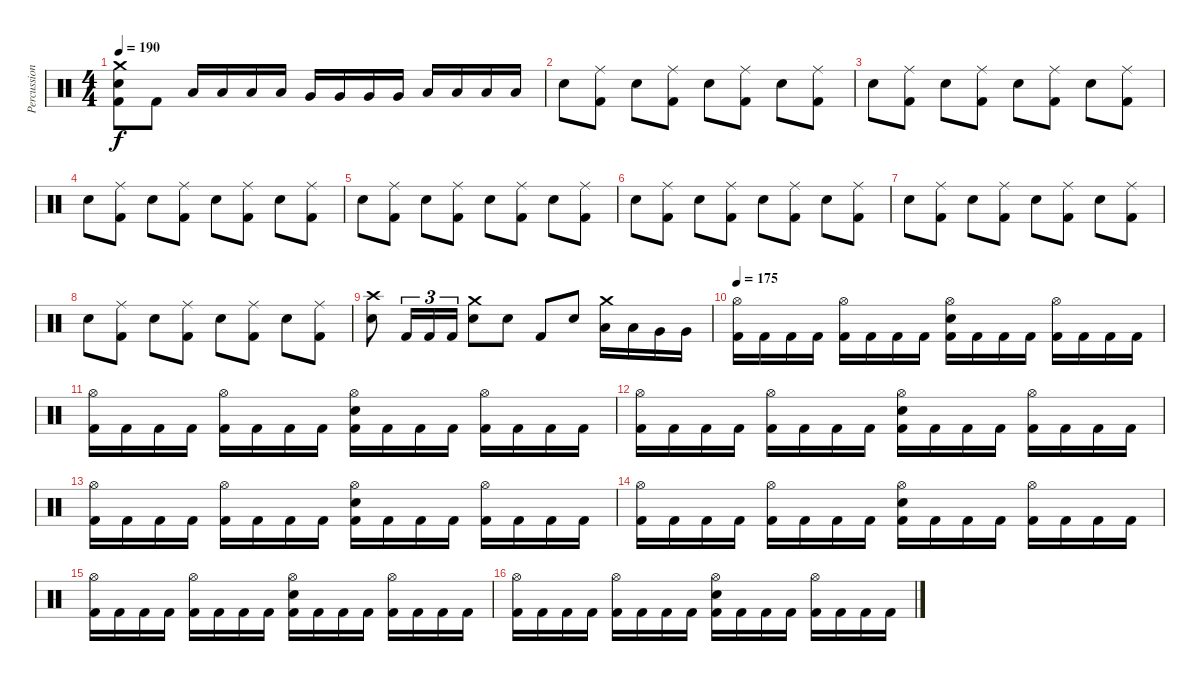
\track ("Percussion" "Percussion") {instrument percussion}
\staff {score}
\articulation defaults
\ts (4 4)
\tempo 190
\clef neutral
\ks c
("Crash medium (hit)" "Electric Snare (hit)" "Kick (hit) 2").8{dy f} "Kick (hit) 2".8 "Low Tom (hit)".16 "Low Tom (hit)".16 "Low Tom (hit)".16 "Low Tom (hit)".16 "Very Low Tom (hit)".16 "Very Low Tom (hit)".16 "Very Low Tom (hit)".16 "Very Low Tom (hit)".16 "Low Floor Tom (hit)".16 "Low Floor Tom (hit)".16 "Low Floor Tom (hit)".16 "Low Floor Tom (hit)".16 |
"Electric Snare (hit)".8 ("Ride (middle)" "Kick (hit) 2").8 "Electric Snare (hit)".8 ("Ride (middle)" "Kick (hit) 2").8 "Electric Snare (hit)".8 ("Ride (middle)" "Kick (hit) 2").8 "Electric Snare (hit)".8 ("Ride (middle)" "Kick (hit) 2").8 |
"Electric Snare (hit)".8 ("Ride (middle)" "Kick (hit) 2").8 "Electric Snare (hit)".8 ("Ride (middle)" "Kick (hit) 2").8 "Electric Snare (hit)".8 ("Ride (middle)" "Kick (hit) 2").8 "Electric Snare (hit)".8 ("Ride (middle)" "Kick (hit) 2").8 |
"Electric Snare (hit)".8 ("Ride (middle)" "Kick (hit) 2").8 "Electric Snare (hit)".8 ("Ride (middle)" "Kick (hit) 2").8 "Electric Snare (hit)".8 ("Ride (middle)" "Kick (hit) 2").8 "Electric Snare (hit)".8 ("Ride (middle)" "Kick (hit) 2").8 |
"Electric Snare (hit)".8 ("Ride (middle)" "Kick (hit) 2").8 "Electric Snare (hit)".8 ("Ride (middle)" "Kick (hit) 2").8 "Electric Snare (hit)".8 ("Ride (middle)" "Kick (hit) 2").8 "Electric Snare (hit)".8 ("Ride (middle)" "Kick (hit) 2").8 |
"Electric Snare (hit)".8 ("Ride (middle)" "Kick (hit) 2").8 "Electric Snare (hit)".8 ("Ride (middle)" "Kick (hit) 2").8 "Electric Snare (hit)".8 ("Ride (middle)" "Kick (hit) 2").8 "Electric Snare (hit)".8 ("Ride (middle)" "Kick (hit) 2").8 |
"Electric Snare (hit)".8 ("Ride (middle)" "Kick (hit) 2").8 "Electric Snare (hit)".8 ("Ride (middle)" "Kick (hit) 2").8 "Electric Snare (hit)".8 ("Ride (middle)" "Kick (hit) 2").8 "Electric Snare (hit)".8 ("Ride (middle)" "Kick (hit) 2").8 |
"Electric Snare (hit)".8 ("Ride (middle)" "Kick (hit) 2").8 "Electric Snare (hit)".8 ("Ride (middle)" "Kick (hit) 2").8 "Electric Snare (hit)".8 ("Ride (middle)" "Kick (hit) 2").8 "Electric Snare (hit)".8 ("Ride (middle)" "Kick (hit) 2").8 |
("Crash high (hit)" "Electric Snare (hit)").8 "Kick (hit) 2".16{tu (3 2)} "Kick (hit) 2".16{tu (3 2)} "Kick (hit) 2".16{tu (3 2)} ("Crash medium (hit)" "Electric Snare (hit)").8 "Electric Snare (hit)".8 "Kick (hit) 2".8 "Electric Snare (hit)".8 ("Crash medium (hit)" "Low Tom (hit)").16 "Low Tom (hit)".16 "Very Low Tom (hit)".16 "Very Low Tom (hit)".16 |
\tempo 175
("Hi-Hat (open)" "Kick (hit) 2").16 "Kick (hit) 2".16 "Kick (hit) 2".16 "Kick (hit) 2".16 ("Hi-Hat (open)" "Kick (hit) 2").16 "Kick (hit) 2".16 "Kick (hit) 2".16 "Kick (hit) 2".16 ("Hi-Hat (open)" "Electric Snare (hit)" "Kick (hit) 2").16 "Kick (hit) 2".16 "Kick (hit) 2".16 "Kick (hit) 2".16 ("Hi-Hat (open)" "Kick (hit) 2").16 "Kick (hit) 2".16 "Kick (hit) 2".16 "Kick (hit) 2".16 |
("Hi-Hat (open)" "Kick (hit) 2").16 "Kick (hit) 2".16 "Kick (hit) 2".16 "Kick (hit) 2".16 ("Hi-Hat (open)" "Kick (hit) 2").16 "Kick (hit) 2".16 "Kick (hit) 2".16 "Kick (hit) 2".16 ("Hi-Hat (open)" "Electric Snare (hit)" "Kick (hit) 2").16 "Kick (hit) 2".16 "Kick (hit) 2".16 "Kick (hit) 2".16 ("Hi-Hat (open)" "Kick (hit) 2").16 "Kick (hit) 2".16 "Kick (hit) 2".16 "Kick (hit) 2".16 |
("Hi-Hat (open)" "Kick (hit) 2").16 "Kick (hit) 2".16 "Kick (hit) 2".16 "Kick (hit) 2".16 ("Hi-Hat (open)" "Kick (hit) 2").16 "Kick (hit) 2".16 "Kick (hit) 2".16 "Kick (hit) 2".16 ("Hi-Hat (open)" "Electric Snare (hit)" "Kick (hit) 2").16 "Kick (hit) 2".16 "Kick (hit) 2".16 "Kick (hit) 2".16 ("Hi-Hat (open)" "Kick (hit) 2").16 "Kick (hit) 2".16 "Kick (hit) 2".16 "Kick (hit) 2".16 |
("Hi-Hat (open)" "Kick (hit) 2").16 "Kick (hit) 2".16 "Kick (hit) 2".16 "Kick (hit) 2".16 ("Hi-Hat (open)" "Kick (hit) 2").16 "Kick (hit) 2".16 "Kick (hit) 2".16 "Kick (hit) 2".16 ("Hi-Hat (open)" "Electric Snare (hit)" "Kick (hit) 2").16 "Kick (hit) 2".16 "Kick (hit) 2".16 "Kick (hit) 2".16 ("Hi-Hat (open)" "Kick (hit) 2").16 "Kick (hit) 2".16 "Kick (hit) 2".16 "Kick (hit) 2".16 |
("Hi-Hat (open)" "Kick (hit) 2").16 "Kick (hit) 2".16 "Kick (hit) 2".16 "Kick (hit) 2".16 ("Hi-Hat (open)" "Kick (hit) 2").16 "Kick (hit) 2".16 "Kick (hit) 2".16 "Kick (hit) 2".16 ("Hi-Hat (open)" "Electric Snare (hit)" "Kick (hit) 2").16 "Kick (hit) 2".16 "Kick (hit) 2".16 "Kick (hit) 2".16 ("Hi-Hat (open)" "Kick (hit) 2").16 "Kick (hit) 2".16 "Kick (hit) 2".16 "Kick (hit) 2".16 |
("Hi-Hat (open)" "Kick (hit) 2").16 "Kick (hit) 2".16 "Kick (hit) 2".16 "Kick (hit) 2".16 ("Hi-Hat (open)" "Kick (hit) 2").16 "Kick (hit) 2".16 "Kick (hit) 2".16 "Kick (hit) 2".16 ("Hi-Hat (open)" "Electric Snare (hit)" "Kick (hit) 2").16 "Kick (hit) 2".16 "Kick (hit) 2".16 "Kick (hit) 2".16 ("Hi-Hat (open)" "Kick (hit) 2").16 "Kick (hit) 2".16 "Kick (hit) 2".16 "Kick (hit) 2".16 |
("Hi-Hat (open)" "Kick (hit) 2").16 "Kick (hit) 2".16 "Kick (hit) 2".16 "Kick (hit) 2".16 ("Hi-Hat (open)" "Kick (hit) 2").16 "Kick (hit) 2".16 "Kick (hit) 2".16 "Kick (hit) 2".16 ("Hi-Hat (open)" "Electric Snare (hit)" "Kick (hit) 2").16 "Kick (hit) 2".16 "Kick (hit) 2".16 "Kick (hit) 2".16 ("Hi-Hat (open)" "Kick (hit) 2").16 "Kick (hit) 2".16 "Kick (hit) 2".16 "Kick (hit) 2".16
